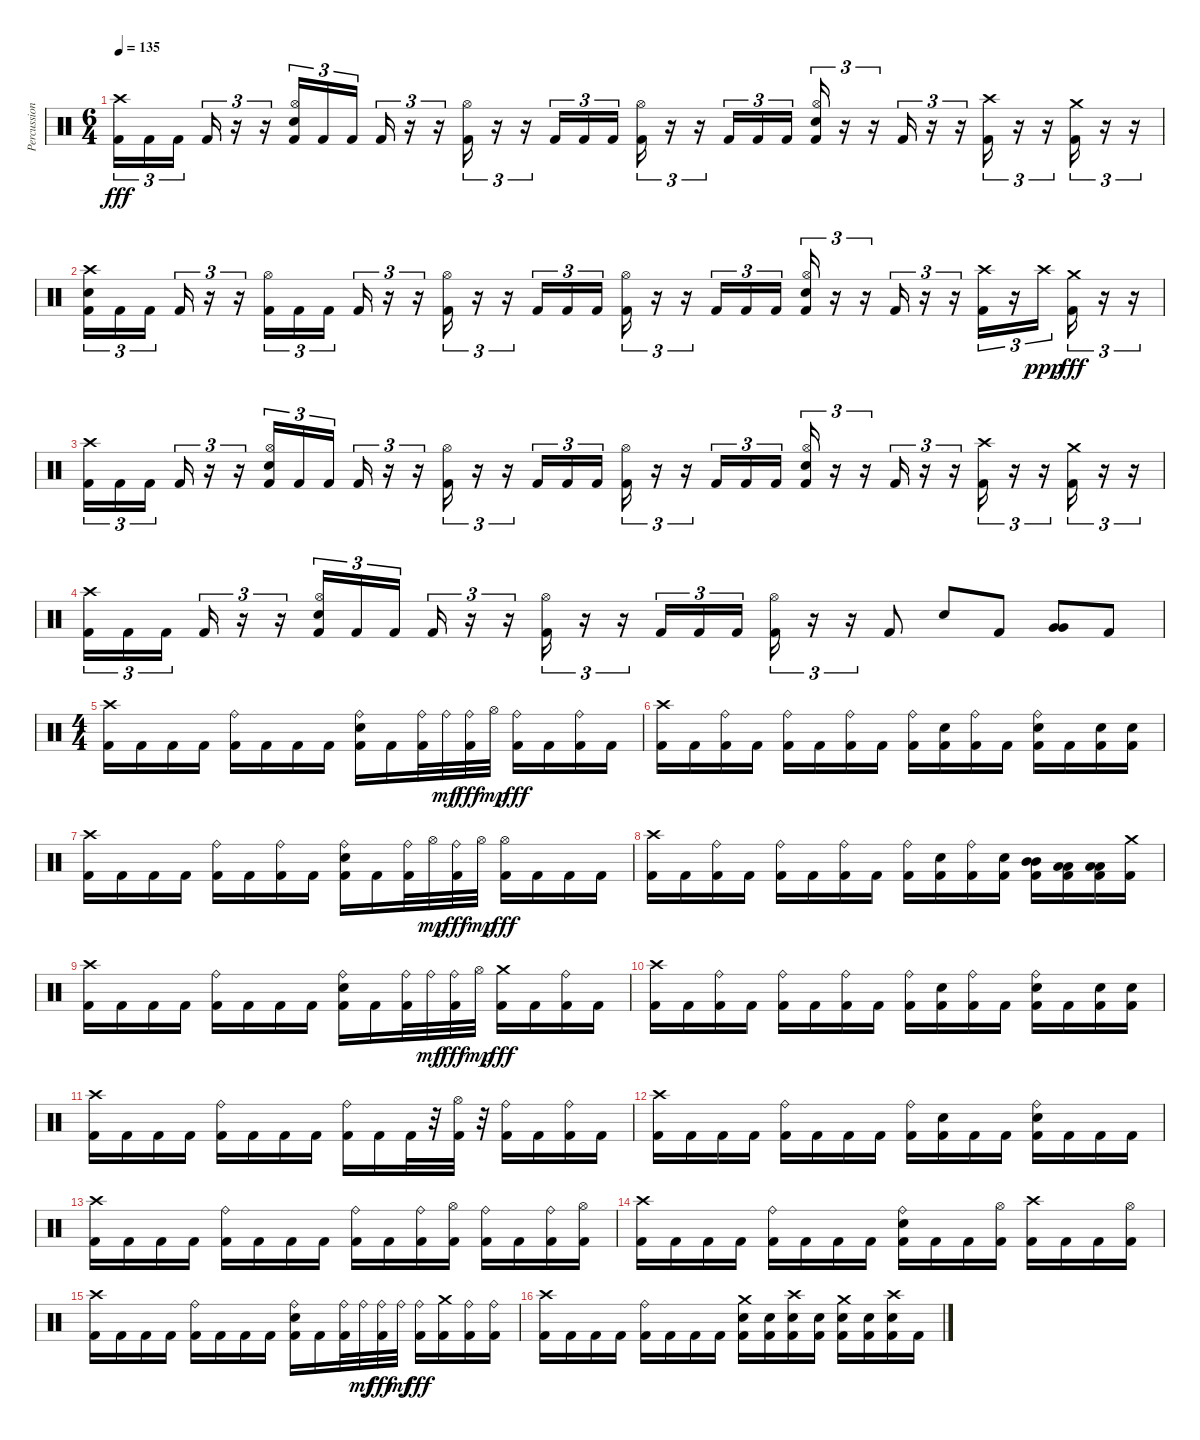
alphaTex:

\track ("Percussion" "Percussion") {instrument percussion bank 16}
\staff {score}
\articulation defaults
\ts (6 4)
\tempo 135
\clef neutral
\ks c
("Crash high (hit)" "Kick (hit) 2").16{tu (3 2) dy fff} "Kick (hit) 2".16{tu (3 2)} "Kick (hit) 2".16{tu (3 2) beam splitsecondary} "Kick (hit) 2".16{tu (3 2)} r.16{tu (3 2)} r.16{tu (3 2)} ("Hi-Hat (open)" "Electric Snare (hit)" "Kick (hit) 2").16{tu (3 2)} "Kick (hit) 2".16{tu (3 2)} "Kick (hit) 2".16{tu (3 2) beam splitsecondary} "Kick (hit) 2".16{tu (3 2)} r.16{tu (3 2)} r.16{tu (3 2)} ("Hi-Hat (open)" "Kick (hit) 2").16{tu (3 2)} r.16{tu (3 2)} r.16{tu (3 2)} "Kick (hit) 2".16{tu (3 2)} "Kick (hit) 2".16{tu (3 2)} "Kick (hit) 2".16{tu (3 2)} ("Hi-Hat (open)" "Kick (hit) 2").16{tu (3 2)} r.16{tu (3 2)} r.16{tu (3 2)} "Kick (hit) 2".16{tu (3 2)} "Kick (hit) 2".16{tu (3 2)} "Kick (hit) 2".16{tu (3 2) beam splitsecondary} ("Hi-Hat (open)" "Electric Snare (hit)" "Kick (hit) 2").16{tu (3 2)} r.16{tu (3 2)} r.16{tu (3 2)} "Kick (hit) 2".16{tu (3 2)} r.16{tu (3 2)} r.16{tu (3 2)} ("Crash high (hit)" "Kick (hit) 2").16{tu (3 2)} r.16{tu (3 2)} r.16{tu (3 2)} ("Crash medium (hit)" "Kick (hit) 2").16{tu (3 2)} r.16{tu (3 2)} r.16{tu (3 2)} |
("Crash high (hit)" "Electric Snare (hit)" "Kick (hit) 2").16{tu (3 2)} "Kick (hit) 2".16{tu (3 2)} "Kick (hit) 2".16{tu (3 2) beam splitsecondary} "Kick (hit) 2".16{tu (3 2)} r.16{tu (3 2)} r.16{tu (3 2)} ("Hi-Hat (open)" "Kick (hit) 2").16{tu (3 2)} "Kick (hit) 2".16{tu (3 2)} "Kick (hit) 2".16{tu (3 2) beam splitsecondary} "Kick (hit) 2".16{tu (3 2)} r.16{tu (3 2)} r.16{tu (3 2)} ("Hi-Hat (open)" "Kick (hit) 2").16{tu (3 2)} r.16{tu (3 2)} r.16{tu (3 2)} "Kick (hit) 2".16{tu (3 2)} "Kick (hit) 2".16{tu (3 2)} "Kick (hit) 2".16{tu (3 2)} ("Hi-Hat (open)" "Kick (hit) 2").16{tu (3 2)} r.16{tu (3 2)} r.16{tu (3 2)} "Kick (hit) 2".16{tu (3 2)} "Kick (hit) 2".16{tu (3 2)} "Kick (hit) 2".16{tu (3 2) beam splitsecondary} ("Hi-Hat (open)" "Electric Snare (hit)" "Kick (hit) 2").16{tu (3 2)} r.16{tu (3 2)} r.16{tu (3 2)} "Kick (hit) 2".16{tu (3 2)} r.16{tu (3 2)} r.16{tu (3 2)} ("Crash high (hit)" "Kick (hit) 2").16{tu (3 2)} r.16{tu (3 2)} "Crash high (hit)".16{tu (3 2) dy ppp} ("Crash medium (hit)" "Kick (hit) 2").16{tu (3 2) dy fff} r.16{tu (3 2)} r.16{tu (3 2)} |
("Crash high (hit)" "Kick (hit) 2").16{tu (3 2)} "Kick (hit) 2".16{tu (3 2)} "Kick (hit) 2".16{tu (3 2) beam splitsecondary} "Kick (hit) 2".16{tu (3 2)} r.16{tu (3 2)} r.16{tu (3 2)} ("Hi-Hat (open)" "Electric Snare (hit)" "Kick (hit) 2").16{tu (3 2)} "Kick (hit) 2".16{tu (3 2)} "Kick (hit) 2".16{tu (3 2) beam splitsecondary} "Kick (hit) 2".16{tu (3 2)} r.16{tu (3 2)} r.16{tu (3 2)} ("Hi-Hat (open)" "Kick (hit) 2").16{tu (3 2)} r.16{tu (3 2)} r.16{tu (3 2)} "Kick (hit) 2".16{tu (3 2)} "Kick (hit) 2".16{tu (3 2)} "Kick (hit) 2".16{tu (3 2)} ("Hi-Hat (open)" "Kick (hit) 2").16{tu (3 2)} r.16{tu (3 2)} r.16{tu (3 2)} "Kick (hit) 2".16{tu (3 2)} "Kick (hit) 2".16{tu (3 2)} "Kick (hit) 2".16{tu (3 2) beam splitsecondary} ("Hi-Hat (open)" "Electric Snare (hit)" "Kick (hit) 2").16{tu (3 2)} r.16{tu (3 2)} r.16{tu (3 2)} "Kick (hit) 2".16{tu (3 2)} r.16{tu (3 2)} r.16{tu (3 2)} ("Crash high (hit)" "Kick (hit) 2").16{tu (3 2)} r.16{tu (3 2)} r.16{tu (3 2)} ("Crash medium (hit)" "Kick (hit) 2").16{tu (3 2)} r.16{tu (3 2)} r.16{tu (3 2)} |
("Crash high (hit)" "Kick (hit) 2").16{tu (3 2)} "Kick (hit) 2".16{tu (3 2)} "Kick (hit) 2".16{tu (3 2) beam splitsecondary} "Kick (hit) 2".16{tu (3 2)} r.16{tu (3 2)} r.16{tu (3 2)} ("Hi-Hat (open)" "Electric Snare (hit)" "Kick (hit) 2").16{tu (3 2)} "Kick (hit) 2".16{tu (3 2)} "Kick (hit) 2".16{tu (3 2) beam splitsecondary} "Kick (hit) 2".16{tu (3 2)} r.16{tu (3 2)} r.16{tu (3 2)} ("Hi-Hat (open)" "Kick (hit) 2").16{tu (3 2)} r.16{tu (3 2)} r.16{tu (3 2)} "Kick (hit) 2".16{tu (3 2)} "Kick (hit) 2".16{tu (3 2)} "Kick (hit) 2".16{tu (3 2)} ("Hi-Hat (open)" "Kick (hit) 2").16{tu (3 2)} r.16{tu (3 2)} r.16{tu (3 2)} "Kick (hit) 2".8 "Electric Snare (hit)".8 "Kick (hit) 2".8 ("Very Low Tom (hit)" "Very Low Tom (hit)").8 "Kick (hit) 2".8 |
\ts (4 4)
("Crash high (hit)" "Kick (hit) 2").16 "Kick (hit) 2".16 "Kick (hit) 2".16 "Kick (hit) 2".16 ("Ride (bell)" "Kick (hit) 2").16 "Kick (hit) 2".16 "Kick (hit) 2".16 "Kick (hit) 2".16 ("Ride (bell)" "Electric Snare (hit)" "Kick (hit) 2").16 "Kick (hit) 2".16 ("Ride (bell)" "Kick (hit) 2").32 "Ride (bell)".32{dy mf} ("Ride (bell)" "Kick (hit) 2").32{dy fff} "Hi-Hat (open)".32{dy mp} ("Ride (bell)" "Kick (hit) 2").16{dy fff} "Kick (hit) 2".16 ("Ride (bell)" "Kick (hit) 2").16 "Kick (hit) 2".16 |
("Crash high (hit)" "Kick (hit) 2").16 "Kick (hit) 2".16 ("Ride (bell)" "Kick (hit) 2").16 "Kick (hit) 2".16 ("Ride (bell)" "Kick (hit) 2").16 "Kick (hit) 2".16 ("Ride (bell)" "Kick (hit) 2").16 "Kick (hit) 2".16 ("Ride (bell)" "Kick (hit) 2").16 ("Electric Snare (hit)" "Kick (hit) 2").16 ("Ride (bell)" "Kick (hit) 2").16 "Kick (hit) 2".16 ("Ride (bell)" "Electric Snare (hit)" "Kick (hit) 2").16 "Kick (hit) 2".16 ("Electric Snare (hit)" "Kick (hit) 2").16 ("Electric Snare (hit)" "Kick (hit) 2").16 |
("Crash high (hit)" "Kick (hit) 2").16 "Kick (hit) 2".16 "Kick (hit) 2".16 "Kick (hit) 2".16 ("Ride (bell)" "Kick (hit) 2").16 "Kick (hit) 2".16 ("Ride (bell)" "Kick (hit) 2").16 "Kick (hit) 2".16 ("Ride (bell)" "Electric Snare (hit)" "Kick (hit) 2").16 "Kick (hit) 2".16 ("Ride (bell)" "Kick (hit) 2").32 "Hi-Hat (open)".32{dy mp} ("Ride (bell)" "Kick (hit) 2").32{dy fff} "Hi-Hat (open)".32{dy mp} ("Hi-Hat (open)" "Kick (hit) 2").16{dy fff} "Kick (hit) 2".16 "Kick (hit) 2".16 "Kick (hit) 2".16 |
("Crash high (hit)" "Kick (hit) 2").16 "Kick (hit) 2".16 ("Ride (bell)" "Kick (hit) 2").16 "Kick (hit) 2".16 ("Ride (bell)" "Kick (hit) 2").16 "Kick (hit) 2".16 ("Ride (bell)" "Kick (hit) 2").16 "Kick (hit) 2".16 ("Ride (bell)" "Kick (hit) 2").16 ("Electric Snare (hit)" "Kick (hit) 2").16 ("Ride (bell)" "Kick (hit) 2").16 ("Electric Snare (hit)" "Kick (hit) 2").16 ("Mid Tom (hit)" "Mid Tom (hit)" "Kick (hit) 2").16 ("Low Tom (hit)" "Low Tom (hit)" "Kick (hit) 2").16 ("Low Tom (hit)" "Low Tom (hit)" "Kick (hit) 2").16 ("Crash medium (hit)" "Kick (hit) 2").16 |
("Crash high (hit)" "Kick (hit) 2").16 "Kick (hit) 2".16 "Kick (hit) 2".16 "Kick (hit) 2".16 ("Ride (bell)" "Kick (hit) 2").16 "Kick (hit) 2".16 "Kick (hit) 2".16 "Kick (hit) 2".16 ("Ride (bell)" "Electric Snare (hit)" "Kick (hit) 2").16 "Kick (hit) 2".16 ("Ride (bell)" "Kick (hit) 2").32 "Ride (bell)".32{dy mf} ("Ride (bell)" "Kick (hit) 2").32{dy fff} "Hi-Hat (open)".32{dy mp} ("Crash medium (hit)" "Kick (hit) 2").16{dy fff} "Kick (hit) 2".16 ("Ride (bell)" "Kick (hit) 2").16 "Kick (hit) 2".16 |
("Crash high (hit)" "Kick (hit) 2").16 "Kick (hit) 2".16 ("Ride (bell)" "Kick (hit) 2").16 "Kick (hit) 2".16 ("Ride (bell)" "Kick (hit) 2").16 "Kick (hit) 2".16 ("Ride (bell)" "Kick (hit) 2").16 "Kick (hit) 2".16 ("Ride (bell)" "Kick (hit) 2").16 ("Electric Snare (hit)" "Kick (hit) 2").16 ("Ride (bell)" "Kick (hit) 2").16 "Kick (hit) 2".16 ("Ride (bell)" "Electric Snare (hit)" "Kick (hit) 2").16 "Kick (hit) 2".16 ("Electric Snare (hit)" "Kick (hit) 2").16 ("Electric Snare (hit)" "Kick (hit) 2").16 |
("Crash high (hit)" "Kick (hit) 2").16 "Kick (hit) 2".16 "Kick (hit) 2".16 "Kick (hit) 2".16 ("Ride (bell)" "Kick (hit) 2").16 "Kick (hit) 2".16 "Kick (hit) 2".16 "Kick (hit) 2".16 ("Ride (bell)" "Kick (hit) 2").16 "Kick (hit) 2".16 "Kick (hit) 2".32 r.32 ("Hi-Hat (open)" "Kick (hit) 2").32 r.32 ("Ride (bell)" "Kick (hit) 2").16 "Kick (hit) 2".16 ("Ride (bell)" "Kick (hit) 2").16 "Kick (hit) 2".16 |
("Crash high (hit)" "Kick (hit) 2").16 "Kick (hit) 2".16 "Kick (hit) 2".16 "Kick (hit) 2".16 ("Ride (bell)" "Kick (hit) 2").16 "Kick (hit) 2".16 "Kick (hit) 2".16 "Kick (hit) 2".16 ("Ride (bell)" "Kick (hit) 2").16 ("Electric Snare (hit)" "Kick (hit) 2").16 "Kick (hit) 2".16 "Kick (hit) 2".16 ("Ride (bell)" "Electric Snare (hit)" "Kick (hit) 2").16 "Kick (hit) 2".16 "Kick (hit) 2".16 "Kick (hit) 2".16 |
("Crash high (hit)" "Kick (hit) 2").16 "Kick (hit) 2".16 "Kick (hit) 2".16 "Kick (hit) 2".16 ("Ride (bell)" "Kick (hit) 2").16 "Kick (hit) 2".16 "Kick (hit) 2".16 "Kick (hit) 2".16 ("Ride (bell)" "Kick (hit) 2").16 "Kick (hit) 2".16 ("Ride (bell)" "Kick (hit) 2").16 ("Hi-Hat (open)" "Kick (hit) 2").16 ("Ride (bell)" "Kick (hit) 2").16 "Kick (hit) 2".16 ("Ride (bell)" "Kick (hit) 2").16 ("Hi-Hat (open)" "Kick (hit) 2").16 |
("Crash high (hit)" "Kick (hit) 2").16 "Kick (hit) 2".16 "Kick (hit) 2".16 "Kick (hit) 2".16 ("Ride (bell)" "Kick (hit) 2").16 "Kick (hit) 2".16 "Kick (hit) 2".16 "Kick (hit) 2".16 ("Ride (bell)" "Electric Snare (hit)" "Kick (hit) 2").16 "Kick (hit) 2".16 "Kick (hit) 2".16 ("Hi-Hat (open)" "Kick (hit) 2").16 ("Crash high (hit)" "Kick (hit) 2").16 "Kick (hit) 2".16 "Kick (hit) 2".16 ("Hi-Hat (open)" "Kick (hit) 2").16 |
("Crash high (hit)" "Kick (hit) 2").16 "Kick (hit) 2".16 "Kick (hit) 2".16 "Kick (hit) 2".16 ("Ride (bell)" "Kick (hit) 2").16 "Kick (hit) 2".16 "Kick (hit) 2".16 "Kick (hit) 2".16 ("Ride (bell)" "Electric Snare (hit)" "Kick (hit) 2").16 "Kick (hit) 2".16 ("Ride (bell)" "Kick (hit) 2").32 "Ride (bell)".32{dy mf} ("Ride (bell)" "Kick (hit) 2").32{dy fff} "Ride (bell)".32{dy mf} ("Ride (bell)" "Kick (hit) 2").16{dy fff} ("Crash medium (hit)" "Kick (hit) 2").16 ("Ride (bell)" "Kick (hit) 2").16 ("Ride (bell)" "Kick (hit) 2").16 |
("Crash high (hit)" "Kick (hit) 2").16 "Kick (hit) 2".16 "Kick (hit) 2".16 "Kick (hit) 2".16 ("Ride (bell)" "Kick (hit) 2").16 "Kick (hit) 2".16 "Kick (hit) 2".16 "Kick (hit) 2".16 ("Crash medium (hit)" "Electric Snare (hit)" "Kick (hit) 2").16 ("Electric Snare (hit)" "Kick (hit) 2").16 ("Crash high (hit)" "Electric Snare (hit)" "Kick (hit) 2").16 ("Electric Snare (hit)" "Kick (hit) 2").16 ("Crash medium (hit)" "Electric Snare (hit)" "Kick (hit) 2").16 ("Electric Snare (hit)" "Kick (hit) 2").16 ("Crash high (hit)" "Electric Snare (hit)" "Kick (hit) 2").16 "Kick (hit) 2".16
